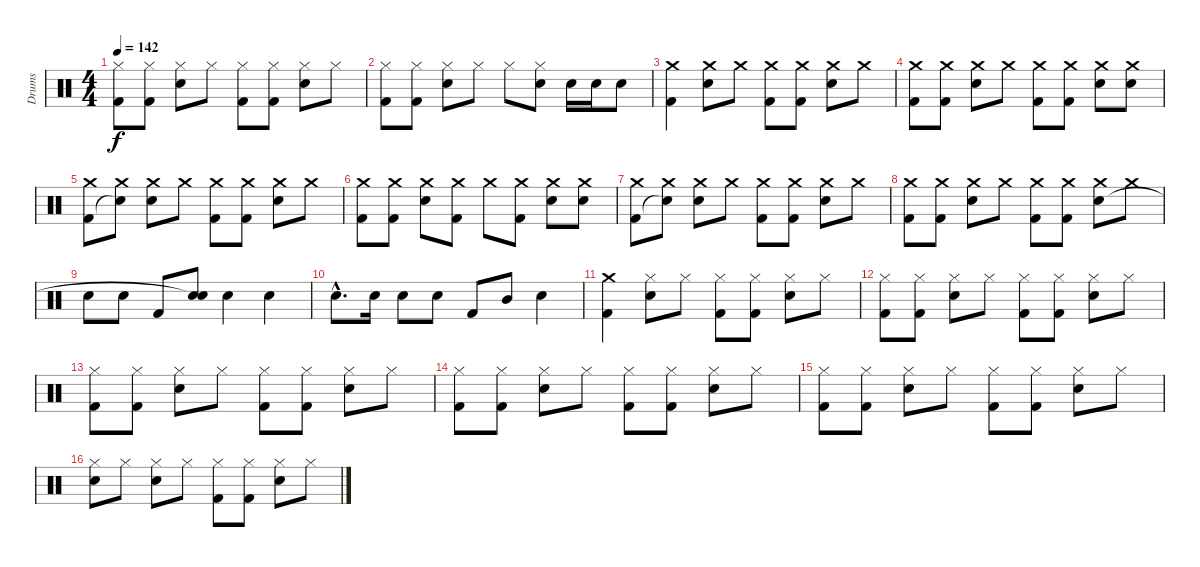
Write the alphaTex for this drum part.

\track ("Drums" "Drums") {instrument percussion}
\staff {score}
\articulation defaults
\ts (4 4)
\tempo 142
\clef neutral
\ks c
("Hi-Hat (closed)" "Kick (hit) 2").8{dy f} ("Hi-Hat (closed)" "Kick (hit) 2").8 ("Hi-Hat (closed)" "Snare (hit) 2").8 "Hi-Hat (closed)".8 ("Hi-Hat (closed)" "Kick (hit) 2").8 ("Hi-Hat (closed)" "Kick (hit) 2").8 ("Hi-Hat (closed)" "Snare (hit) 2").8 "Hi-Hat (closed)".8 |
("Hi-Hat (closed)" "Kick (hit) 2").8 ("Hi-Hat (closed)" "Kick (hit) 2").8 ("Hi-Hat (closed)" "Snare (hit) 2").8 "Hi-Hat (closed)".8 "Hi-Hat (closed)".8 ("Hi-Hat (closed)" "Snare (hit) 2").8 "Snare (hit) 2".16 "Snare (hit) 2".16 "Snare (hit) 2".8 |
("Crash medium (hit)" "Kick (hit) 2").4 ("Crash medium (hit)" "Snare (hit) 2").8 "Crash medium (hit)".8 ("Crash medium (hit)" "Kick (hit) 2").8 ("Crash medium (hit)" "Kick (hit) 2").8 ("Crash medium (hit)" "Snare (hit) 2").8 "Crash medium (hit)".8 |
("Crash medium (hit)" "Kick (hit) 2").8 ("Crash medium (hit)" "Kick (hit) 2").8 ("Crash medium (hit)" "Snare (hit) 2").8 "Crash medium (hit)".8 ("Crash medium (hit)" "Kick (hit) 2").8 ("Crash medium (hit)" "Kick (hit) 2").8 ("Crash medium (hit)" "Snare (hit) 2").8 ("Crash medium (hit)" "Snare (hit) 2").8 |
("Crash medium (hit)" "Kick (hit) 2").8 ("Crash medium (hit)" "Snare (hit)"{t}).8 ("Crash medium (hit)" "Snare (hit) 2").8 "Crash medium (hit)".8 ("Crash medium (hit)" "Kick (hit) 2").8 ("Crash medium (hit)" "Kick (hit) 2").8 ("Crash medium (hit)" "Snare (hit) 2").8 "Crash medium (hit)".8 |
("Crash medium (hit)" "Kick (hit) 2").8 ("Crash medium (hit)" "Kick (hit) 2").8 ("Crash medium (hit)" "Snare (hit) 2").8 ("Crash medium (hit)" "Kick (hit) 2").8 "Crash medium (hit)".8 ("Crash medium (hit)" "Kick (hit) 2").8 ("Crash medium (hit)" "Snare (hit) 2").8 ("Crash medium (hit)" "Snare (hit) 2").8 |
("Crash medium (hit)" "Kick (hit) 2").8 ("Crash medium (hit)" "Snare (hit)"{t}).8 ("Crash medium (hit)" "Snare (hit) 2").8 "Crash medium (hit)".8 ("Crash medium (hit)" "Kick (hit) 2").8 ("Crash medium (hit)" "Kick (hit) 2").8 ("Crash medium (hit)" "Snare (hit) 2").8 "Crash medium (hit)".8 |
("Crash medium (hit)" "Kick (hit) 2").8 ("Crash medium (hit)" "Kick (hit) 2").8 ("Crash medium (hit)" "Snare (hit) 2").8 "Crash medium (hit)".8 ("Crash medium (hit)" "Kick (hit) 2").8 ("Crash medium (hit)" "Kick (hit) 2").8 ("Crash medium (hit)" "Snare (hit) 2").8 "Crash medium (hit)".8 |
"Snare (hit) 2".8 "Snare (hit) 2".8 "Kick (hit) 2".8 ("Snare (hit) 2" "Snare (hit)"{t}).8 "Snare (hit) 2".4 "Snare (hit) 2".4 |
"Snare (hit) 2"{hac}.8{d} "Snare (hit) 2".16 "Snare (hit) 2".8 "Snare (hit) 2".8 "Kick (hit) 2".8 "Mid Tom (hit)".8 "Snare (hit) 2".4 |
("Crash medium (hit)" "Kick (hit) 2").4 ("Hi-Hat (closed)" "Snare (hit) 2").8 "Hi-Hat (closed)".8 ("Hi-Hat (closed)" "Kick (hit) 2").8 ("Hi-Hat (closed)" "Kick (hit) 2").8 ("Hi-Hat (closed)" "Snare (hit) 2").8 "Hi-Hat (closed)".8 |
("Hi-Hat (closed)" "Kick (hit) 2").8 ("Hi-Hat (closed)" "Kick (hit) 2").8 ("Hi-Hat (closed)" "Snare (hit) 2").8 "Hi-Hat (closed)".8 ("Hi-Hat (closed)" "Kick (hit) 2").8 ("Hi-Hat (closed)" "Kick (hit) 2").8 ("Hi-Hat (closed)" "Snare (hit) 2").8 "Hi-Hat (closed)".8 |
("Hi-Hat (closed)" "Kick (hit) 2").8 ("Hi-Hat (closed)" "Kick (hit) 2").8 ("Hi-Hat (closed)" "Snare (hit) 2").8 "Hi-Hat (closed)".8 ("Hi-Hat (closed)" "Kick (hit) 2").8 ("Hi-Hat (closed)" "Kick (hit) 2").8 ("Hi-Hat (closed)" "Snare (hit) 2").8 "Hi-Hat (closed)".8 |
("Hi-Hat (closed)" "Kick (hit) 2").8 ("Hi-Hat (closed)" "Kick (hit) 2").8 ("Hi-Hat (closed)" "Snare (hit) 2").8 "Hi-Hat (closed)".8 ("Hi-Hat (closed)" "Kick (hit) 2").8 ("Hi-Hat (closed)" "Kick (hit) 2").8 ("Hi-Hat (closed)" "Snare (hit) 2").8 "Hi-Hat (closed)".8 |
("Hi-Hat (closed)" "Kick (hit) 2").8 ("Hi-Hat (closed)" "Kick (hit) 2").8 ("Hi-Hat (closed)" "Snare (hit) 2").8 "Hi-Hat (closed)".8 ("Hi-Hat (closed)" "Kick (hit) 2").8 ("Hi-Hat (closed)" "Kick (hit) 2").8 ("Hi-Hat (closed)" "Snare (hit) 2").8 "Hi-Hat (closed)".8 |
("Hi-Hat (closed)" "Snare (hit) 2").8 "Hi-Hat (closed)".8 ("Hi-Hat (closed)" "Snare (hit) 2").8 "Hi-Hat (closed)".8 ("Hi-Hat (closed)" "Kick (hit) 2").8 ("Hi-Hat (closed)" "Kick (hit) 2").8 ("Hi-Hat (closed)" "Snare (hit) 2").8 "Hi-Hat (closed)".8
